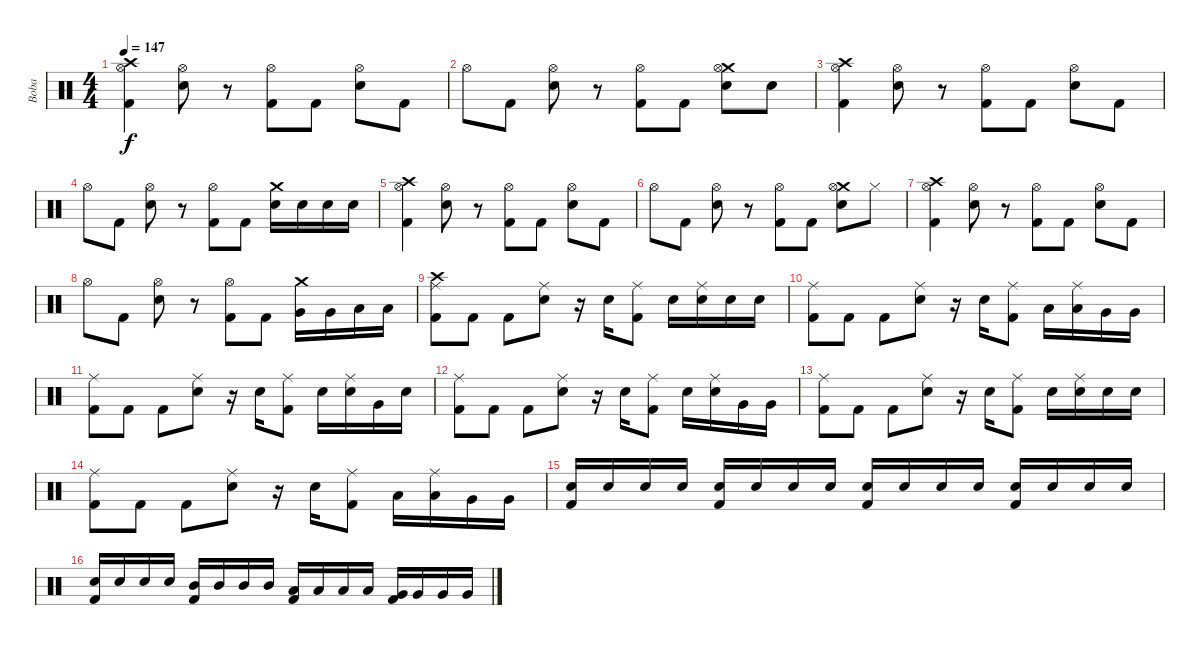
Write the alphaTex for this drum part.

\track ("Boba" "Boba") {instrument percussion}
\staff {score}
\articulation defaults
\ts (4 4)
\tempo 147
\clef neutral
\ks c
("Crash high (hit)" "Hi-Hat (open)" "Kick (hit) 2").4{dy f} ("Hi-Hat (open)" "Electric Snare (hit)").8 r.8 ("Hi-Hat (open)" "Kick (hit) 2").8 "Kick (hit) 2".8 ("Hi-Hat (open)" "Electric Snare (hit)").8 "Kick (hit) 2".8 |
"Hi-Hat (open)".8 "Kick (hit) 2".8 ("Hi-Hat (open)" "Electric Snare (hit)").8 r.8 ("Hi-Hat (open)" "Kick (hit) 2").8 "Kick (hit) 2".8 ("Crash medium (hit)" "Hi-Hat (open)" "Electric Snare (hit)").8 "Electric Snare (hit)".8 |
("Crash high (hit)" "Hi-Hat (open)" "Kick (hit) 2").4 ("Hi-Hat (open)" "Electric Snare (hit)").8 r.8 ("Hi-Hat (open)" "Kick (hit) 2").8 "Kick (hit) 2".8 ("Hi-Hat (open)" "Electric Snare (hit)").8 "Kick (hit) 2".8 |
"Hi-Hat (open)".8 "Kick (hit) 2".8 ("Hi-Hat (open)" "Electric Snare (hit)").8 r.8 ("Hi-Hat (open)" "Kick (hit) 2").8 "Kick (hit) 2".8 ("Crash medium (hit)" "Electric Snare (hit)").16 "Electric Snare (hit)".16 "Electric Snare (hit)".16 "Electric Snare (hit)".16 |
("Crash high (hit)" "Hi-Hat (open)" "Kick (hit) 2").4 ("Hi-Hat (open)" "Electric Snare (hit)").8 r.8 ("Hi-Hat (open)" "Kick (hit) 2").8 "Kick (hit) 2".8 ("Hi-Hat (open)" "Electric Snare (hit)").8 "Kick (hit) 2".8 |
"Hi-Hat (open)".8 "Kick (hit) 2".8 ("Hi-Hat (open)" "Electric Snare (hit)").8 r.8 ("Hi-Hat (open)" "Kick (hit) 2").8 "Kick (hit) 2".8 ("Crash medium (hit)" "Hi-Hat (open)" "Electric Snare (hit)").8 "Hi-Hat (closed)".8 |
("Crash high (hit)" "Hi-Hat (open)" "Kick (hit) 2").4 ("Hi-Hat (open)" "Electric Snare (hit)").8 r.8 ("Hi-Hat (open)" "Kick (hit) 2").8 "Kick (hit) 2".8 ("Hi-Hat (open)" "Electric Snare (hit)").8 "Kick (hit) 2".8 |
"Hi-Hat (open)".8 "Kick (hit) 2".8 ("Hi-Hat (open)" "Electric Snare (hit)").8 r.8 ("Hi-Hat (open)" "Kick (hit) 2").8 "Kick (hit) 2".8 ("Crash medium (hit)" "Very Low Tom (hit)").16 "Very Low Tom (hit)".16 "Low Floor Tom (hit)".16 "Low Floor Tom (hit)".16 |
("Ride (middle)" "Crash high (hit)" "Kick (hit) 2").8 "Kick (hit) 2".8 "Kick (hit) 2".8 ("Ride (middle)" "Electric Snare (hit)").8 r.16 "Electric Snare (hit)".16 ("Ride (middle)" "Kick (hit) 2").8 "Electric Snare (hit)".16 ("Ride (middle)" "Electric Snare (hit)").16 "Electric Snare (hit)".16 "Electric Snare (hit)".16 |
("Ride (middle)" "Kick (hit) 2").8 "Kick (hit) 2".8 "Kick (hit) 2".8 ("Ride (middle)" "Electric Snare (hit)").8 r.16 "Electric Snare (hit)".16 ("Ride (middle)" "Kick (hit) 2").8 "Low Tom (hit)".16 ("Ride (middle)" "Low Tom (hit)").16 "Very Low Tom (hit)".16 "Very Low Tom (hit)".16 |
("Ride (middle)" "Kick (hit) 2").8 "Kick (hit) 2".8 "Kick (hit) 2".8 ("Ride (middle)" "Electric Snare (hit)").8 r.16 "Electric Snare (hit)".16 ("Ride (middle)" "Kick (hit) 2").8 "Electric Snare (hit)".16 ("Ride (middle)" "Electric Snare (hit)").16 "Very Low Tom (hit)".16 "Electric Snare (hit)".16 |
("Ride (middle)" "Kick (hit) 2").8 "Kick (hit) 2".8 "Kick (hit) 2".8 ("Ride (middle)" "Electric Snare (hit)").8 r.16 "Electric Snare (hit)".16 ("Ride (middle)" "Kick (hit) 2").8 "Electric Snare (hit)".16 ("Ride (middle)" "Electric Snare (hit)").16 "Very Low Tom (hit)".16 "Very Low Tom (hit)".16 |
("Ride (middle)" "Kick (hit) 2").8 "Kick (hit) 2".8 "Kick (hit) 2".8 ("Ride (middle)" "Electric Snare (hit)").8 r.16 "Electric Snare (hit)".16 ("Ride (middle)" "Kick (hit) 2").8 "Electric Snare (hit)".16 ("Ride (middle)" "Electric Snare (hit)").16 "Electric Snare (hit)".16 "Electric Snare (hit)".16 |
("Ride (middle)" "Kick (hit) 2").8 "Kick (hit) 2".8 "Kick (hit) 2".8 ("Ride (middle)" "Electric Snare (hit)").8 r.16 "Electric Snare (hit)".16 ("Ride (middle)" "Kick (hit) 2").8 "Low Tom (hit)".16 ("Ride (middle)" "Low Tom (hit)").16 "Very Low Tom (hit)".16 "Very Low Tom (hit)".16 |
("Electric Snare (hit)" "Kick (hit) 2").16 "Electric Snare (hit)".16 "Electric Snare (hit)".16 "Electric Snare (hit)".16 ("Electric Snare (hit)" "Kick (hit) 2").16 "Electric Snare (hit)".16 "Electric Snare (hit)".16 "Electric Snare (hit)".16 ("Electric Snare (hit)" "Kick (hit) 2").16 "Electric Snare (hit)".16 "Electric Snare (hit)".16 "Electric Snare (hit)".16 ("Electric Snare (hit)" "Kick (hit) 2").16 "Electric Snare (hit)".16 "Electric Snare (hit)".16 "Electric Snare (hit)".16 |
("Electric Snare (hit)" "Kick (hit) 2").16 "Electric Snare (hit)".16 "Electric Snare (hit)".16 "Electric Snare (hit)".16 ("Mid Tom (hit)" "Kick (hit) 2").16 "Mid Tom (hit)".16 "Mid Tom (hit)".16 "Mid Tom (hit)".16 ("Low Tom (hit)" "Kick (hit) 2").16 "Low Tom (hit)".16 "Low Tom (hit)".16 "Low Tom (hit)".16 ("Very Low Tom (hit)" "Kick (hit) 2").16 "Very Low Tom (hit)".16 "Very Low Tom (hit)".16 "Very Low Tom (hit)".16
